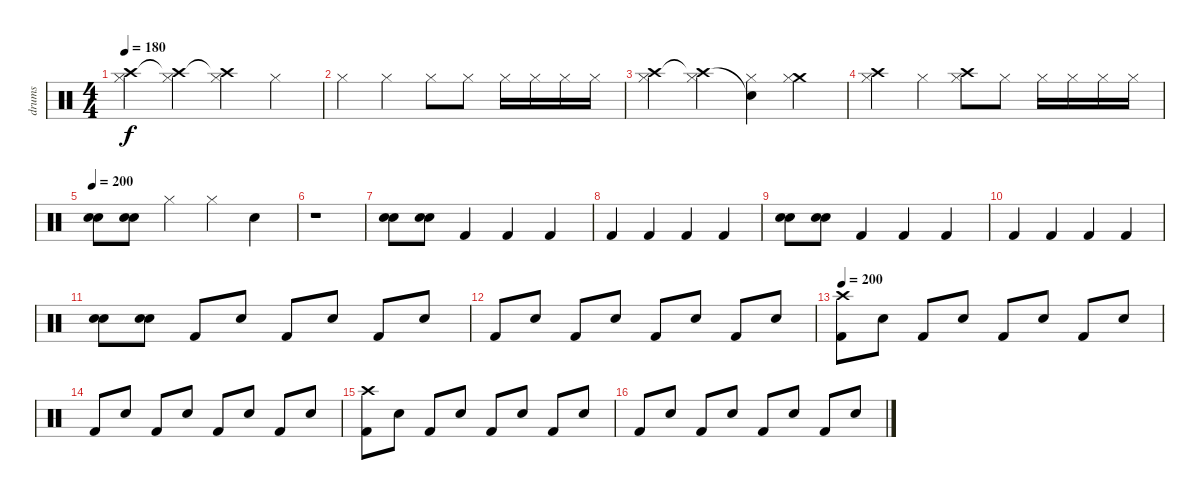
\track ("drums" "drums") {instrument percussion}
\staff {score}
\articulation defaults
\ts (4 4)
\tempo 180
\clef neutral
\ks c
("Crash high (hit)" "Hi-Hat (closed)").4{dy f} ("Crash high (hit)"{t} "Hi-Hat (closed)").4 ("Crash high (hit)"{t} "Hi-Hat (closed)").4 "Hi-Hat (closed)".4 |
"Hi-Hat (closed)".4 "Hi-Hat (closed)".4 "Hi-Hat (closed)".8 "Hi-Hat (closed)".8 "Hi-Hat (closed)".16 "Hi-Hat (closed)".16 "Hi-Hat (closed)".16 "Hi-Hat (closed)".16 |
("Crash high (hit)" "Hi-Hat (closed)").4 ("Crash high (hit)"{t} "Hi-Hat (closed)").4 ("Snare (hit)"{t} "Hi-Hat (closed)").4 ("Crash medium (hit)" "Hi-Hat (closed)").4 |
("Crash high (hit)" "Hi-Hat (closed)").4 "Hi-Hat (closed)".4 ("Crash high (hit)" "Hi-Hat (closed)").8 "Hi-Hat (closed)".8 "Hi-Hat (closed)".16 "Hi-Hat (closed)".16 "Hi-Hat (closed)".16 "Hi-Hat (closed)".16 |
\tempo 200
("Electric Snare (hit)" "Electric Snare (hit)").8 ("Electric Snare (hit)" "Electric Snare (hit)").8 "Hi-Hat (closed)"{x}.4 "Hi-Hat (closed)"{x}.4 "Snare (hit)"{x}.4 |
r.1 |
("Electric Snare (hit)" "Electric Snare (hit)").8 ("Electric Snare (hit)" "Electric Snare (hit)").8 "Kick (hit) 2".4 "Kick (hit) 2".4 "Kick (hit) 2".4 |
"Kick (hit) 2".4 "Kick (hit) 2".4 "Kick (hit) 2".4 "Kick (hit) 2".4 |
("Electric Snare (hit)" "Electric Snare (hit)").8 ("Electric Snare (hit)" "Electric Snare (hit)").8 "Kick (hit) 2".4 "Kick (hit) 2".4 "Kick (hit) 2".4 |
"Kick (hit) 2".4 "Kick (hit) 2".4 "Kick (hit) 2".4 "Kick (hit) 2".4 |
("Electric Snare (hit)" "Electric Snare (hit)").8 ("Electric Snare (hit)" "Electric Snare (hit)").8 "Kick (hit) 2".8 "Electric Snare (hit)".8 "Kick (hit) 2".8 "Electric Snare (hit)".8 "Kick (hit) 2".8 "Electric Snare (hit)".8 |
"Kick (hit) 2".8 "Electric Snare (hit)".8 "Kick (hit) 2".8 "Electric Snare (hit)".8 "Kick (hit) 2".8 "Electric Snare (hit)".8 "Kick (hit) 2".8 "Electric Snare (hit)".8 |
\tempo 200
("Crash high (hit)" "Kick (hit) 2").8 "Electric Snare (hit)".8 "Kick (hit) 2".8 "Electric Snare (hit)".8 "Kick (hit) 2".8 "Electric Snare (hit)".8 "Kick (hit) 2".8 "Electric Snare (hit)".8 |
"Kick (hit) 2".8 "Electric Snare (hit)".8 "Kick (hit) 2".8 "Electric Snare (hit)".8 "Kick (hit) 2".8 "Electric Snare (hit)".8 "Kick (hit) 2".8 "Electric Snare (hit)".8 |
("Crash high (hit)" "Kick (hit) 2").8 "Electric Snare (hit)".8 "Kick (hit) 2".8 "Electric Snare (hit)".8 "Kick (hit) 2".8 "Electric Snare (hit)".8 "Kick (hit) 2".8 "Electric Snare (hit)".8 |
"Kick (hit) 2".8 "Electric Snare (hit)".8 "Kick (hit) 2".8 "Electric Snare (hit)".8 "Kick (hit) 2".8 "Electric Snare (hit)".8 "Kick (hit) 2".8 "Electric Snare (hit)".8
